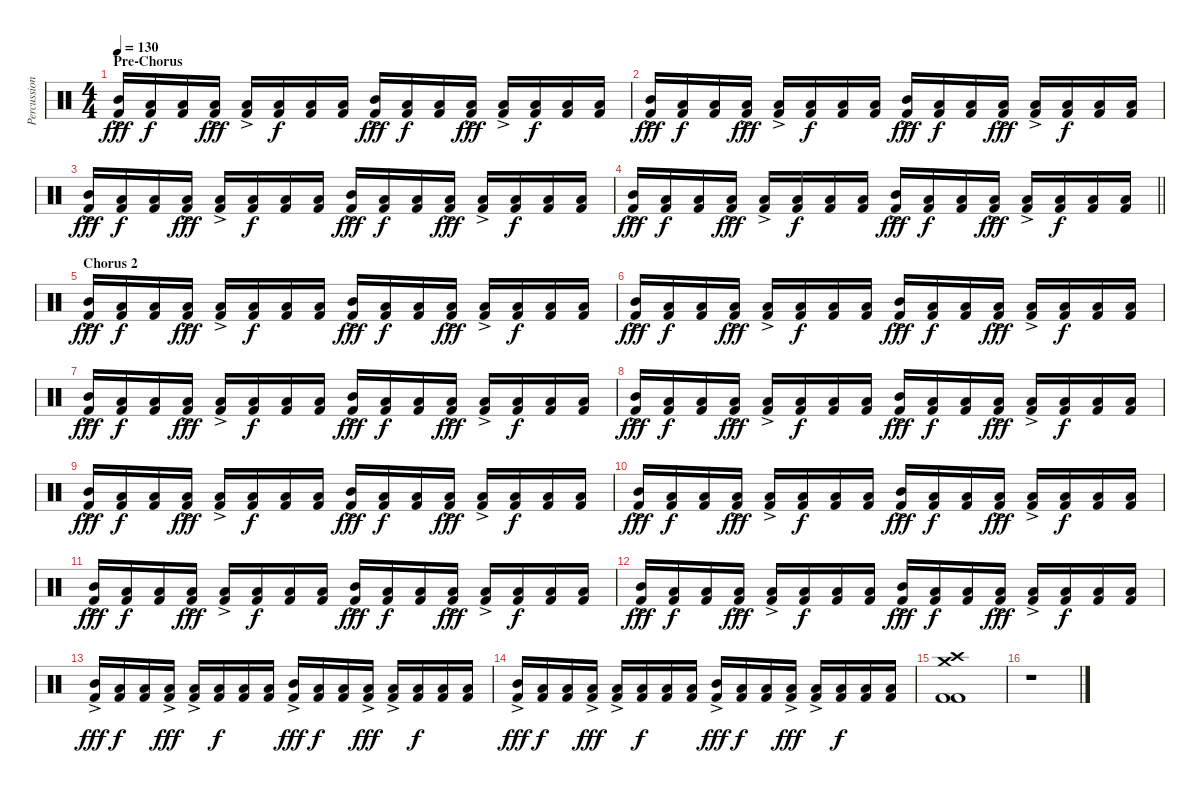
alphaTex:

\track ("Percussion" "Percussion") {instrument percussion}
\staff {score}
\articulation defaults
\ts (4 4)
\section ("" "Pre-Chorus")
\tempo 130
\clef neutral
\ks c
("Mid Tom (hit)"{ac} "Kick (hit) 2").16{dy fff} ("Low Floor Tom (hit)" "Kick (hit) 2").16{dy f} ("Low Floor Tom (hit)" "Kick (hit) 2").16 ("Low Tom (hit)"{ac} "Kick (hit) 2").16{dy fff} ("Low Tom (hit)"{ac} "Kick (hit) 2").16 ("Low Floor Tom (hit)" "Kick (hit) 2").16{dy f} ("Low Floor Tom (hit)" "Kick (hit) 2").16 ("Low Floor Tom (hit)" "Kick (hit) 2").16 ("Mid Tom (hit)"{ac} "Kick (hit) 2").16{dy fff} ("Low Floor Tom (hit)" "Kick (hit) 2").16{dy f} ("Low Floor Tom (hit)" "Kick (hit) 2").16 ("Low Tom (hit)"{ac} "Kick (hit) 2").16{dy fff} ("Low Tom (hit)"{ac} "Kick (hit) 2").16 ("Low Floor Tom (hit)" "Kick (hit) 2").16{dy f} ("Low Floor Tom (hit)" "Kick (hit) 2").16 ("Low Floor Tom (hit)" "Kick (hit) 2").16 |
("Mid Tom (hit)"{ac} "Kick (hit) 2").16{dy fff} ("Low Floor Tom (hit)" "Kick (hit) 2").16{dy f} ("Low Floor Tom (hit)" "Kick (hit) 2").16 ("Low Tom (hit)"{ac} "Kick (hit) 2").16{dy fff} ("Low Tom (hit)"{ac} "Kick (hit) 2").16 ("Low Floor Tom (hit)" "Kick (hit) 2").16{dy f} ("Low Floor Tom (hit)" "Kick (hit) 2").16 ("Low Floor Tom (hit)" "Kick (hit) 2").16 ("Mid Tom (hit)"{ac} "Kick (hit) 2").16{dy fff} ("Low Floor Tom (hit)" "Kick (hit) 2").16{dy f} ("Low Floor Tom (hit)" "Kick (hit) 2").16 ("Low Tom (hit)"{ac} "Kick (hit) 2").16{dy fff} ("Low Tom (hit)"{ac} "Kick (hit) 2").16 ("Low Floor Tom (hit)" "Kick (hit) 2").16{dy f} ("Low Floor Tom (hit)" "Kick (hit) 2").16 ("Low Floor Tom (hit)" "Kick (hit) 2").16 |
("Mid Tom (hit)"{ac} "Kick (hit) 2").16{dy fff} ("Low Floor Tom (hit)" "Kick (hit) 2").16{dy f} ("Low Floor Tom (hit)" "Kick (hit) 2").16 ("Low Tom (hit)"{ac} "Kick (hit) 2").16{dy fff} ("Low Tom (hit)"{ac} "Kick (hit) 2").16 ("Low Floor Tom (hit)" "Kick (hit) 2").16{dy f} ("Low Floor Tom (hit)" "Kick (hit) 2").16 ("Low Floor Tom (hit)" "Kick (hit) 2").16 ("Mid Tom (hit)"{ac} "Kick (hit) 2").16{dy fff} ("Low Floor Tom (hit)" "Kick (hit) 2").16{dy f} ("Low Floor Tom (hit)" "Kick (hit) 2").16 ("Low Tom (hit)"{ac} "Kick (hit) 2").16{dy fff} ("Low Tom (hit)"{ac} "Kick (hit) 2").16 ("Low Floor Tom (hit)" "Kick (hit) 2").16{dy f} ("Low Floor Tom (hit)" "Kick (hit) 2").16 ("Low Floor Tom (hit)" "Kick (hit) 2").16 |
\barLineRight lightlight
("Mid Tom (hit)"{ac} "Kick (hit) 2").16{dy fff} ("Low Floor Tom (hit)" "Kick (hit) 2").16{dy f} ("Low Floor Tom (hit)" "Kick (hit) 2").16 ("Low Tom (hit)"{ac} "Kick (hit) 2").16{dy fff} ("Low Tom (hit)"{ac} "Kick (hit) 2").16 ("Low Floor Tom (hit)" "Kick (hit) 2").16{dy f} ("Low Floor Tom (hit)" "Kick (hit) 2").16 ("Low Floor Tom (hit)" "Kick (hit) 2").16 ("Mid Tom (hit)"{ac} "Kick (hit) 2").16{dy fff} ("Low Floor Tom (hit)" "Kick (hit) 2").16{dy f} ("Low Floor Tom (hit)" "Kick (hit) 2").16 ("Low Tom (hit)"{ac} "Kick (hit) 2").16{dy fff} ("Low Tom (hit)"{ac} "Kick (hit) 2").16 ("Low Floor Tom (hit)" "Kick (hit) 2").16{dy f} ("Low Floor Tom (hit)" "Kick (hit) 2").16 ("Low Floor Tom (hit)" "Kick (hit) 2").16 |
\section ("" "Chorus 2")
("Mid Tom (hit)"{ac} "Kick (hit) 2").16{dy fff} ("Low Floor Tom (hit)" "Kick (hit) 2").16{dy f} ("Low Floor Tom (hit)" "Kick (hit) 2").16 ("Low Tom (hit)"{ac} "Kick (hit) 2").16{dy fff} ("Low Tom (hit)"{ac} "Kick (hit) 2").16 ("Low Floor Tom (hit)" "Kick (hit) 2").16{dy f} ("Low Floor Tom (hit)" "Kick (hit) 2").16 ("Low Floor Tom (hit)" "Kick (hit) 2").16 ("Mid Tom (hit)"{ac} "Kick (hit) 2").16{dy fff} ("Low Floor Tom (hit)" "Kick (hit) 2").16{dy f} ("Low Floor Tom (hit)" "Kick (hit) 2").16 ("Low Tom (hit)"{ac} "Kick (hit) 2").16{dy fff} ("Low Tom (hit)"{ac} "Kick (hit) 2").16 ("Low Floor Tom (hit)" "Kick (hit) 2").16{dy f} ("Low Floor Tom (hit)" "Kick (hit) 2").16 ("Low Floor Tom (hit)" "Kick (hit) 2").16 |
("Mid Tom (hit)"{ac} "Kick (hit) 2").16{dy fff} ("Low Floor Tom (hit)" "Kick (hit) 2").16{dy f} ("Low Floor Tom (hit)" "Kick (hit) 2").16 ("Low Tom (hit)"{ac} "Kick (hit) 2").16{dy fff} ("Low Tom (hit)"{ac} "Kick (hit) 2").16 ("Low Floor Tom (hit)" "Kick (hit) 2").16{dy f} ("Low Floor Tom (hit)" "Kick (hit) 2").16 ("Low Floor Tom (hit)" "Kick (hit) 2").16 ("Mid Tom (hit)"{ac} "Kick (hit) 2").16{dy fff} ("Low Floor Tom (hit)" "Kick (hit) 2").16{dy f} ("Low Floor Tom (hit)" "Kick (hit) 2").16 ("Low Tom (hit)"{ac} "Kick (hit) 2").16{dy fff} ("Low Tom (hit)"{ac} "Kick (hit) 2").16 ("Low Floor Tom (hit)" "Kick (hit) 2").16{dy f} ("Low Floor Tom (hit)" "Kick (hit) 2").16 ("Low Floor Tom (hit)" "Kick (hit) 2").16 |
("Mid Tom (hit)"{ac} "Kick (hit) 2").16{dy fff} ("Low Floor Tom (hit)" "Kick (hit) 2").16{dy f} ("Low Floor Tom (hit)" "Kick (hit) 2").16 ("Low Tom (hit)"{ac} "Kick (hit) 2").16{dy fff} ("Low Tom (hit)"{ac} "Kick (hit) 2").16 ("Low Floor Tom (hit)" "Kick (hit) 2").16{dy f} ("Low Floor Tom (hit)" "Kick (hit) 2").16 ("Low Floor Tom (hit)" "Kick (hit) 2").16 ("Mid Tom (hit)"{ac} "Kick (hit) 2").16{dy fff} ("Low Floor Tom (hit)" "Kick (hit) 2").16{dy f} ("Low Floor Tom (hit)" "Kick (hit) 2").16 ("Low Tom (hit)"{ac} "Kick (hit) 2").16{dy fff} ("Low Tom (hit)"{ac} "Kick (hit) 2").16 ("Low Floor Tom (hit)" "Kick (hit) 2").16{dy f} ("Low Floor Tom (hit)" "Kick (hit) 2").16 ("Low Floor Tom (hit)" "Kick (hit) 2").16 |
("Mid Tom (hit)"{ac} "Kick (hit) 2").16{dy fff} ("Low Floor Tom (hit)" "Kick (hit) 2").16{dy f} ("Low Floor Tom (hit)" "Kick (hit) 2").16 ("Low Tom (hit)"{ac} "Kick (hit) 2").16{dy fff} ("Low Tom (hit)"{ac} "Kick (hit) 2").16 ("Low Floor Tom (hit)" "Kick (hit) 2").16{dy f} ("Low Floor Tom (hit)" "Kick (hit) 2").16 ("Low Floor Tom (hit)" "Kick (hit) 2").16 ("Mid Tom (hit)"{ac} "Kick (hit) 2").16{dy fff} ("Low Floor Tom (hit)" "Kick (hit) 2").16{dy f} ("Low Floor Tom (hit)" "Kick (hit) 2").16 ("Low Tom (hit)"{ac} "Kick (hit) 2").16{dy fff} ("Low Tom (hit)"{ac} "Kick (hit) 2").16 ("Low Floor Tom (hit)" "Kick (hit) 2").16{dy f} ("Low Floor Tom (hit)" "Kick (hit) 2").16 ("Low Floor Tom (hit)" "Kick (hit) 2").16 |
("Mid Tom (hit)"{ac} "Kick (hit) 2").16{dy fff} ("Low Floor Tom (hit)" "Kick (hit) 2").16{dy f} ("Low Floor Tom (hit)" "Kick (hit) 2").16 ("Low Tom (hit)"{ac} "Kick (hit) 2").16{dy fff} ("Low Tom (hit)"{ac} "Kick (hit) 2").16 ("Low Floor Tom (hit)" "Kick (hit) 2").16{dy f} ("Low Floor Tom (hit)" "Kick (hit) 2").16 ("Low Floor Tom (hit)" "Kick (hit) 2").16 ("Mid Tom (hit)"{ac} "Kick (hit) 2").16{dy fff} ("Low Floor Tom (hit)" "Kick (hit) 2").16{dy f} ("Low Floor Tom (hit)" "Kick (hit) 2").16 ("Low Tom (hit)"{ac} "Kick (hit) 2").16{dy fff} ("Low Tom (hit)"{ac} "Kick (hit) 2").16 ("Low Floor Tom (hit)" "Kick (hit) 2").16{dy f} ("Low Floor Tom (hit)" "Kick (hit) 2").16 ("Low Floor Tom (hit)" "Kick (hit) 2").16 |
("Mid Tom (hit)"{ac} "Kick (hit) 2").16{dy fff} ("Low Floor Tom (hit)" "Kick (hit) 2").16{dy f} ("Low Floor Tom (hit)" "Kick (hit) 2").16 ("Low Tom (hit)"{ac} "Kick (hit) 2").16{dy fff} ("Low Tom (hit)"{ac} "Kick (hit) 2").16 ("Low Floor Tom (hit)" "Kick (hit) 2").16{dy f} ("Low Floor Tom (hit)" "Kick (hit) 2").16 ("Low Floor Tom (hit)" "Kick (hit) 2").16 ("Mid Tom (hit)"{ac} "Kick (hit) 2").16{dy fff} ("Low Floor Tom (hit)" "Kick (hit) 2").16{dy f} ("Low Floor Tom (hit)" "Kick (hit) 2").16 ("Low Tom (hit)"{ac} "Kick (hit) 2").16{dy fff} ("Low Tom (hit)"{ac} "Kick (hit) 2").16 ("Low Floor Tom (hit)" "Kick (hit) 2").16{dy f} ("Low Floor Tom (hit)" "Kick (hit) 2").16 ("Low Floor Tom (hit)" "Kick (hit) 2").16 |
("Mid Tom (hit)"{ac} "Kick (hit) 2").16{dy fff} ("Low Floor Tom (hit)" "Kick (hit) 2").16{dy f} ("Low Floor Tom (hit)" "Kick (hit) 2").16 ("Low Tom (hit)"{ac} "Kick (hit) 2").16{dy fff} ("Low Tom (hit)"{ac} "Kick (hit) 2").16 ("Low Floor Tom (hit)" "Kick (hit) 2").16{dy f} ("Low Floor Tom (hit)" "Kick (hit) 2").16 ("Low Floor Tom (hit)" "Kick (hit) 2").16 ("Mid Tom (hit)"{ac} "Kick (hit) 2").16{dy fff} ("Low Floor Tom (hit)" "Kick (hit) 2").16{dy f} ("Low Floor Tom (hit)" "Kick (hit) 2").16 ("Low Tom (hit)"{ac} "Kick (hit) 2").16{dy fff} ("Low Tom (hit)"{ac} "Kick (hit) 2").16 ("Low Floor Tom (hit)" "Kick (hit) 2").16{dy f} ("Low Floor Tom (hit)" "Kick (hit) 2").16 ("Low Floor Tom (hit)" "Kick (hit) 2").16 |
("Mid Tom (hit)"{ac} "Kick (hit) 2").16{dy fff} ("Low Floor Tom (hit)" "Kick (hit) 2").16{dy f} ("Low Floor Tom (hit)" "Kick (hit) 2").16 ("Low Tom (hit)"{ac} "Kick (hit) 2").16{dy fff} ("Low Tom (hit)"{ac} "Kick (hit) 2").16 ("Low Floor Tom (hit)" "Kick (hit) 2").16{dy f} ("Low Floor Tom (hit)" "Kick (hit) 2").16 ("Low Floor Tom (hit)" "Kick (hit) 2").16 ("Mid Tom (hit)"{ac} "Kick (hit) 2").16{dy fff} ("Low Floor Tom (hit)" "Kick (hit) 2").16{dy f} ("Low Floor Tom (hit)" "Kick (hit) 2").16 ("Low Tom (hit)"{ac} "Kick (hit) 2").16{dy fff} ("Low Tom (hit)"{ac} "Kick (hit) 2").16 ("Low Floor Tom (hit)" "Kick (hit) 2").16{dy f} ("Low Floor Tom (hit)" "Kick (hit) 2").16 ("Low Floor Tom (hit)" "Kick (hit) 2").16 |
("Mid Tom (hit)"{ac} "Kick (hit) 2").16{dy fff} ("Low Floor Tom (hit)" "Kick (hit) 2").16{dy f} ("Low Floor Tom (hit)" "Kick (hit) 2").16 ("Low Tom (hit)"{ac} "Kick (hit) 2").16{dy fff} ("Low Tom (hit)"{ac} "Kick (hit) 2").16 ("Low Floor Tom (hit)" "Kick (hit) 2").16{dy f} ("Low Floor Tom (hit)" "Kick (hit) 2").16 ("Low Floor Tom (hit)" "Kick (hit) 2").16 ("Mid Tom (hit)"{ac} "Kick (hit) 2").16{dy fff} ("Low Floor Tom (hit)" "Kick (hit) 2").16{dy f} ("Low Floor Tom (hit)" "Kick (hit) 2").16 ("Low Tom (hit)"{ac} "Kick (hit) 2").16{dy fff} ("Low Tom (hit)"{ac} "Kick (hit) 2").16 ("Low Floor Tom (hit)" "Kick (hit) 2").16{dy f} ("Low Floor Tom (hit)" "Kick (hit) 2").16 ("Low Floor Tom (hit)" "Kick (hit) 2").16 |
("Mid Tom (hit)"{ac} "Kick (hit) 2").16{dy fff} ("Low Floor Tom (hit)" "Kick (hit) 2").16{dy f} ("Low Floor Tom (hit)" "Kick (hit) 2").16 ("Low Tom (hit)"{ac} "Kick (hit) 2").16{dy fff} ("Low Tom (hit)"{ac} "Kick (hit) 2").16 ("Low Floor Tom (hit)" "Kick (hit) 2").16{dy f} ("Low Floor Tom (hit)" "Kick (hit) 2").16 ("Low Floor Tom (hit)" "Kick (hit) 2").16 ("Mid Tom (hit)"{ac} "Kick (hit) 2").16{dy fff} ("Low Floor Tom (hit)" "Kick (hit) 2").16{dy f} ("Low Floor Tom (hit)" "Kick (hit) 2").16 ("Low Tom (hit)"{ac} "Kick (hit) 2").16{dy fff} ("Low Tom (hit)"{ac} "Kick (hit) 2").16 ("Low Floor Tom (hit)" "Kick (hit) 2").16{dy f} ("Low Floor Tom (hit)" "Kick (hit) 2").16 ("Low Floor Tom (hit)" "Kick (hit) 2").16 |
("Crash high (hit)" "Crash medium (hit)" "Kick (hit) 2" "Kick (hit) 2").1 |
r.1
